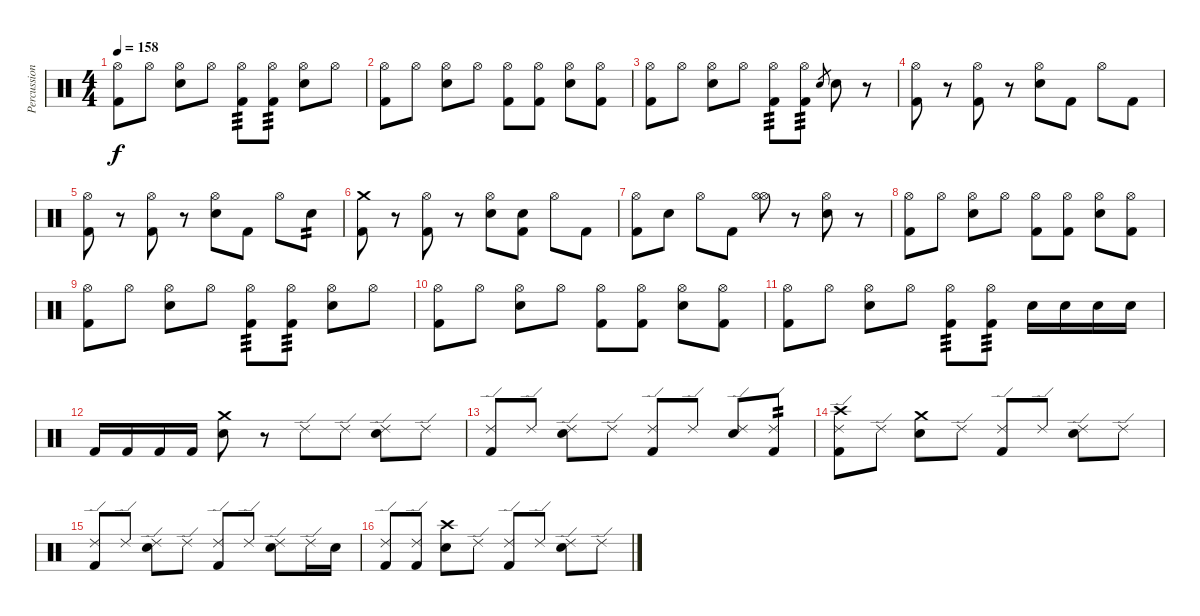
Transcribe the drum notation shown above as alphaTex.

\track ("Percussion" "Percussion") {instrument percussion}
\staff {score}
\articulation defaults
\ts (4 4)
\tempo 158
\clef neutral
\ks c
("Hi-Hat (open)" "Kick (hit) 2").8{dy f} "Hi-Hat (open)".8 ("Hi-Hat (open)" "Electric Snare (hit)").8 "Hi-Hat (open)".8 ("Hi-Hat (open)" "Kick (hit) 2").8{tp 3} ("Hi-Hat (open)" "Kick (hit) 2").8{tp 3} ("Hi-Hat (open)" "Electric Snare (hit)").8 "Hi-Hat (open)".8 |
("Hi-Hat (open)" "Kick (hit) 2").8 "Hi-Hat (open)".8 ("Hi-Hat (open)" "Electric Snare (hit)").8 "Hi-Hat (open)".8 ("Hi-Hat (open)" "Kick (hit) 2").8 ("Hi-Hat (open)" "Kick (hit) 2").8 ("Hi-Hat (open)" "Electric Snare (hit)").8 ("Hi-Hat (open)" "Kick (hit) 2").8 |
("Hi-Hat (open)" "Kick (hit) 2").8 "Hi-Hat (open)".8 ("Hi-Hat (open)" "Electric Snare (hit)").8 "Hi-Hat (open)".8 ("Hi-Hat (open)" "Kick (hit) 2").8{tp 3} ("Hi-Hat (open)" "Kick (hit) 2").8{tp 3} "Electric Snare (hit)".8{gr} "Electric Snare (hit)".8 r.8 |
("Hi-Hat (open)" "Kick (hit) 2").8 r.8 ("Hi-Hat (open)" "Kick (hit) 2").8 r.8 ("Hi-Hat (open)" "Electric Snare (hit)").8 "Kick (hit) 2".8 "Hi-Hat (open)".8 "Kick (hit) 2".8 |
("Hi-Hat (open)" "Kick (hit) 2").8 r.8 ("Hi-Hat (open)" "Kick (hit) 2").8 r.8 ("Hi-Hat (open)" "Electric Snare (hit)").8 "Kick (hit) 2".8 "Hi-Hat (open)".8 "Electric Snare (hit)".8{tp 2} |
("Crash medium (hit)" "Kick (hit) 2").8 r.8 ("Hi-Hat (open)" "Kick (hit) 2").8 r.8 ("Hi-Hat (open)" "Electric Snare (hit)").8 ("Electric Snare (hit)" "Kick (hit) 2").8 "Hi-Hat (open)".8 "Kick (hit) 2".8 |
("Hi-Hat (open)" "Kick (hit) 2").8 "Electric Snare (hit)".8 "Hi-Hat (open)".8 "Kick (hit) 2".8 ("Hi-Hat (open)" "Hi-Hat (open)").8 r.8 ("Hi-Hat (open)" "Electric Snare (hit)").8 r.8 |
("Hi-Hat (open)" "Kick (hit) 2").8 "Hi-Hat (open)".8 ("Hi-Hat (open)" "Electric Snare (hit)").8 "Hi-Hat (open)".8 ("Hi-Hat (open)" "Kick (hit) 2").8 ("Hi-Hat (open)" "Kick (hit) 2").8 ("Hi-Hat (open)" "Electric Snare (hit)").8 ("Hi-Hat (open)" "Kick (hit) 2").8 |
("Hi-Hat (open)" "Kick (hit) 2").8 "Hi-Hat (open)".8 ("Hi-Hat (open)" "Electric Snare (hit)").8 "Hi-Hat (open)".8 ("Hi-Hat (open)" "Kick (hit) 2").8{tp 3} ("Hi-Hat (open)" "Kick (hit) 2").8{tp 3} ("Hi-Hat (open)" "Electric Snare (hit)").8 "Hi-Hat (open)".8 |
("Hi-Hat (open)" "Kick (hit) 2").8 "Hi-Hat (open)".8 ("Hi-Hat (open)" "Electric Snare (hit)").8 "Hi-Hat (open)".8 ("Hi-Hat (open)" "Kick (hit) 2").8 ("Hi-Hat (open)" "Kick (hit) 2").8 ("Hi-Hat (open)" "Electric Snare (hit)").8 ("Hi-Hat (open)" "Kick (hit) 2").8 |
("Hi-Hat (open)" "Kick (hit) 2").8 "Hi-Hat (open)".8 ("Hi-Hat (open)" "Electric Snare (hit)").8 "Hi-Hat (open)".8 ("Hi-Hat (open)" "Kick (hit) 2").8{tp 3} ("Hi-Hat (open)" "Kick (hit) 2").8{tp 3} "Electric Snare (hit)".16 "Electric Snare (hit)".16 "Electric Snare (hit)".16 "Electric Snare (hit)".16 |
"Kick (hit) 2".16 "Kick (hit) 2".16 "Kick (hit) 2".16 "Kick (hit) 2".16 ("Crash medium (hit)" "Electric Snare (hit)").8 r.8 "Ride (edge) 2".8 "Ride (edge) 2".8 ("Ride (edge) 2" "Electric Snare (hit)").8 "Ride (edge) 2".8 |
("Ride (edge) 2" "Kick (hit) 2").8 "Ride (edge) 2".8 ("Ride (edge) 2" "Electric Snare (hit)").8 "Ride (edge) 2".8 ("Ride (edge) 2" "Kick (hit) 2").8 "Ride (edge) 2".8 ("Ride (edge) 2" "Electric Snare (hit)").8 ("Ride (edge) 2" "Kick (hit) 2").8{tp 2} |
("Ride (edge) 2" "Crash high (hit)" "Kick (hit) 2").8 "Ride (edge) 2".8 ("Crash medium (hit)" "Electric Snare (hit)").8 "Ride (edge) 2".8 ("Ride (edge) 2" "Kick (hit) 2").8 "Ride (edge) 2".8 ("Ride (edge) 2" "Electric Snare (hit)").8 "Ride (edge) 2".8 |
("Ride (edge) 2" "Kick (hit) 2").8 "Ride (edge) 2".8 ("Ride (edge) 2" "Electric Snare (hit)").8 "Ride (edge) 2".8 ("Ride (edge) 2" "Kick (hit) 2").8 "Ride (edge) 2".8 ("Ride (edge) 2" "Electric Snare (hit)").8 "Ride (edge) 2".16 "Electric Snare (hit)".16 |
("Ride (edge) 2" "Kick (hit) 2").8 ("Ride (edge) 2" "Kick (hit) 2").8 ("Crash high (hit)" "Electric Snare (hit)").8 "Ride (edge) 2".8 ("Ride (edge) 2" "Kick (hit) 2").8 "Ride (edge) 2".8 ("Ride (edge) 2" "Electric Snare (hit)").8 "Ride (edge) 2".8
